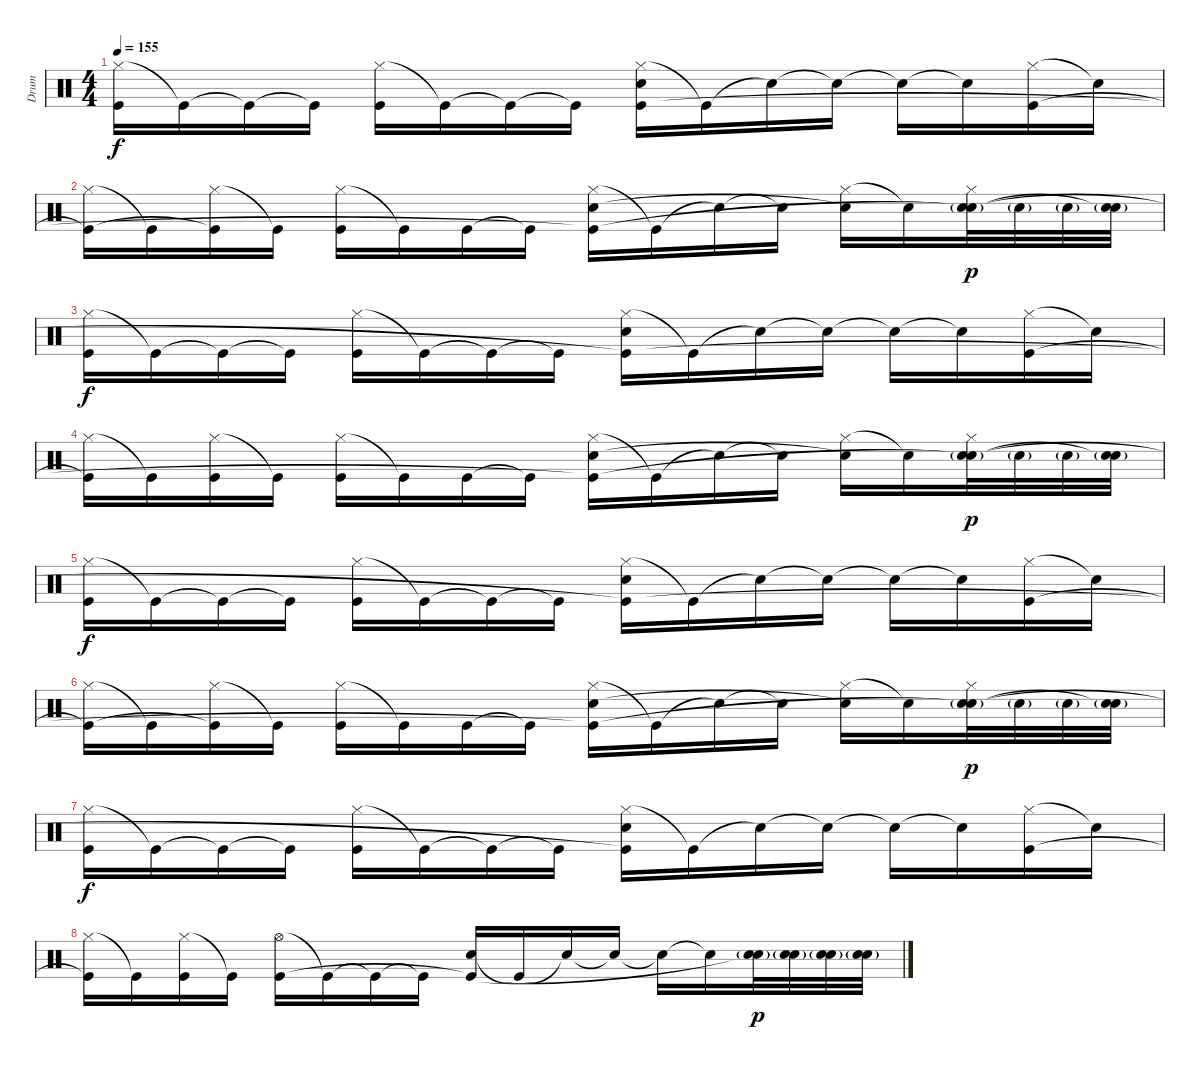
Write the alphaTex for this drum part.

\track ("Drum" "Drum") {instrument percussion}
\staff {score}
\articulation defaults
\ts (4 4)
\tempo 155
\clef neutral
\ks c
("Hi-Hat (closed)" "Kick (hit)").16{dy f} "Kick (hit)"{t}.16 "Kick (hit)"{t}.16 "Kick (hit)"{t}.16 ("Hi-Hat (closed)" "Kick (hit)").16 "Kick (hit)"{t}.16 "Kick (hit)"{t}.16 "Kick (hit)"{t}.16 ("Hi-Hat (closed)" "Electric Snare (hit)" "Kick (hit)"{t}).16 "Kick (hit)"{t}.16 "Snare (hit)"{t}.16 "Snare (hit)"{t}.16 "Snare (hit)"{t}.16 "Snare (hit)"{t}.16 ("Hi-Hat (closed)" "Kick (hit)").16 "Snare (hit)"{t}.16 |
("Hi-Hat (closed)" "Kick (hit)"{t}).16 "Kick (hit)"{t}.16 ("Hi-Hat (closed)" "Kick (hit)"{t}).16 "Kick (hit)"{t}.16 ("Hi-Hat (closed)" "Kick (hit)").16 "Kick (hit)"{t}.16 "Kick (hit)".16 "Kick (hit)"{t}.16 ("Hi-Hat (closed)" "Electric Snare (hit)" "Kick (hit)"{t}).16 "Kick (hit)"{t}.16 "Snare (hit)"{t}.16 "Snare (hit)"{t}.16 ("Hi-Hat (closed)" "Snare (hit)"{t}).16 "Snare (hit)"{t}.16 ("Hi-Hat (closed)" "Electric Snare (hit)"{g} "Snare (hit)"{t}).32{dy p} "Electric Snare (hit)"{g}.32 "Electric Snare (hit)"{g}.32 ("Electric Snare (hit)"{g} "Snare (hit)"{t}).32 |
("Hi-Hat (closed)" "Kick (hit)").16{dy f} "Kick (hit)"{t}.16 "Kick (hit)"{t}.16 "Kick (hit)"{t}.16 ("Hi-Hat (closed)" "Kick (hit)").16 "Kick (hit)"{t}.16 "Kick (hit)"{t}.16 "Kick (hit)"{t}.16 ("Hi-Hat (closed)" "Electric Snare (hit)" "Kick (hit)"{t}).16 "Kick (hit)"{t}.16 "Snare (hit)"{t}.16 "Snare (hit)"{t}.16 "Snare (hit)"{t}.16 "Snare (hit)"{t}.16 ("Hi-Hat (closed)" "Kick (hit)").16 "Snare (hit)"{t}.16 |
("Hi-Hat (closed)" "Kick (hit)"{t}).16 "Kick (hit)"{t}.16 ("Hi-Hat (closed)" "Kick (hit)").16 "Kick (hit)"{t}.16 ("Hi-Hat (closed)" "Kick (hit)").16 "Kick (hit)"{t}.16 "Kick (hit)".16 "Kick (hit)"{t}.16 ("Hi-Hat (closed)" "Electric Snare (hit)" "Kick (hit)"{t}).16 "Kick (hit)"{t}.16 "Snare (hit)"{t}.16 "Snare (hit)"{t}.16 ("Hi-Hat (closed)" "Snare (hit)"{t}).16 "Snare (hit)"{t}.16 ("Hi-Hat (closed)" "Electric Snare (hit)"{g} "Snare (hit)"{t}).32{dy p} "Electric Snare (hit)"{g}.32 "Electric Snare (hit)"{g}.32 ("Electric Snare (hit)"{g} "Snare (hit)"{t}).32 |
("Hi-Hat (closed)" "Kick (hit)").16{dy f} "Kick (hit)"{t}.16 "Kick (hit)"{t}.16 "Kick (hit)"{t}.16 ("Hi-Hat (closed)" "Kick (hit)").16 "Kick (hit)"{t}.16 "Kick (hit)"{t}.16 "Kick (hit)"{t}.16 ("Hi-Hat (closed)" "Electric Snare (hit)" "Kick (hit)"{t}).16 "Kick (hit)"{t}.16 "Snare (hit)"{t}.16 "Snare (hit)"{t}.16 "Snare (hit)"{t}.16 "Snare (hit)"{t}.16 ("Hi-Hat (closed)" "Kick (hit)").16 "Snare (hit)"{t}.16 |
("Hi-Hat (closed)" "Kick (hit)"{t}).16 "Kick (hit)"{t}.16 ("Hi-Hat (closed)" "Kick (hit)"{t}).16 "Kick (hit)"{t}.16 ("Hi-Hat (closed)" "Kick (hit)").16 "Kick (hit)"{t}.16 "Kick (hit)".16 "Kick (hit)"{t}.16 ("Hi-Hat (closed)" "Electric Snare (hit)" "Kick (hit)"{t}).16 "Kick (hit)"{t}.16 "Snare (hit)"{t}.16 "Snare (hit)"{t}.16 ("Hi-Hat (closed)" "Snare (hit)"{t}).16 "Snare (hit)"{t}.16 ("Hi-Hat (closed)" "Electric Snare (hit)"{g} "Snare (hit)"{t}).32{dy p} "Electric Snare (hit)"{g}.32 "Electric Snare (hit)"{g}.32 ("Electric Snare (hit)"{g} "Snare (hit)"{t}).32 |
("Hi-Hat (closed)" "Kick (hit)").16{dy f} "Kick (hit)"{t}.16 "Kick (hit)"{t}.16 "Kick (hit)"{t}.16 ("Hi-Hat (closed)" "Kick (hit)").16 "Kick (hit)"{t}.16 "Kick (hit)"{t}.16 "Kick (hit)"{t}.16 ("Hi-Hat (closed)" "Electric Snare (hit)" "Kick (hit)"{t}).16 "Kick (hit)"{t}.16 "Snare (hit)"{t}.16 "Snare (hit)"{t}.16 "Snare (hit)"{t}.16 "Snare (hit)"{t}.16 ("Hi-Hat (closed)" "Kick (hit)").16 "Snare (hit)"{t}.16 |
("Hi-Hat (closed)" "Kick (hit)"{t}).16 "Kick (hit)"{t}.16 ("Hi-Hat (closed)" "Kick (hit)").16 "Kick (hit)"{t}.16 ("Hi-Hat (open)" "Kick (hit)").16 "Kick (hit)"{t}.16 "Kick (hit)"{t}.16 "Kick (hit)"{t}.16 ("Electric Snare (hit)" "Kick (hit)"{t}).16 "Kick (hit)"{t}.16 "Snare (hit)"{t}.16 "Snare (hit)"{t}.16 "Snare (hit)"{t}.16 "Snare (hit)"{t}.16 ("Electric Snare (hit)"{g} "Snare (hit)"{t}).32{dy p} ("Electric Snare (hit)"{g} "Snare (hit)"{t}).32 ("Electric Snare (hit)"{g} "Snare (hit)"{t}).32 ("Electric Snare (hit)"{g} "Snare (hit)"{t}).32
